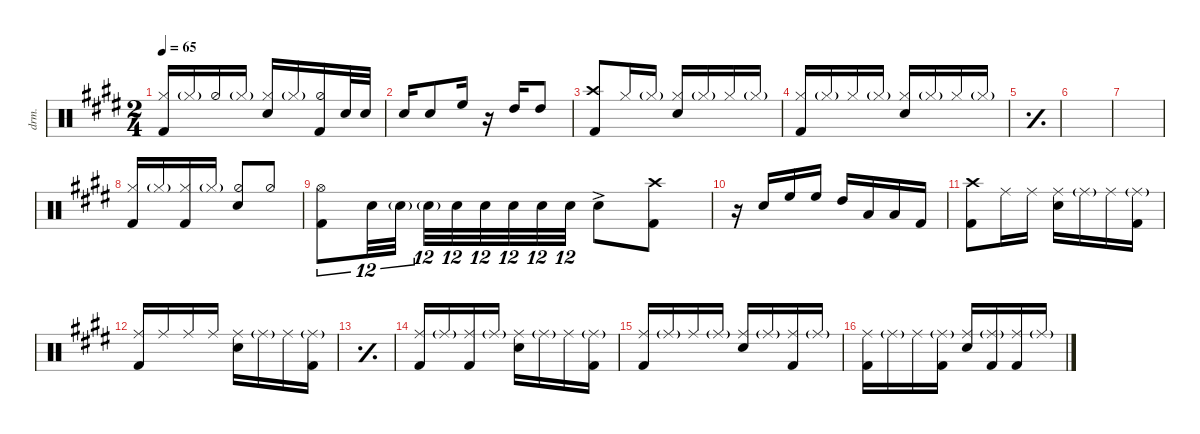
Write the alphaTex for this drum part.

\defaultSystemsLayout 4
\hideDynamics
\bracketExtendMode groupsimilarinstruments
\otherSystemsTrackNameOrientation horizontal
\chordDiagramsInScore
\track ("Drumkit" "drm.") {instrument percussion}
\staff {score}
\articulation defaults
\ts (2 4)
\tempo 65
\clef neutral
\ks e
("Hi-Hat (closed)"{acc forcenatural} "Kick (hit) 2"{acc forcenatural}).16{dy mf beam Up} "Hi-Hat (closed)"{g acc forcenatural}.16{beam Up} "Hi-Hat (half)"{acc forcenatural}.16{beam Up} "Hi-Hat (closed)"{g acc forcenatural}.16{beam Up} ("Hi-Hat (closed)"{acc forcenatural} "Snare (hit) 2"{acc forcenatural}).16{beam Up} "Hi-Hat (closed)"{g acc forcenatural}.16{beam Up} ("Hi-Hat (half)"{acc forcenatural} "Kick (hit) 2"{acc forcenatural}).16{beam Up} "Snare (hit) 2"{acc forcenatural}.32{beam Up} "Snare (hit) 2"{acc forcenatural}.32{beam Up} |
"Snare (hit) 2"{acc forcenatural}.16{beam Up} "Snare (hit) 2"{acc forcenatural}.8{beam Up} "High Floor Tom (hit)"{acc forcenatural}.16{beam Up} r.16{beam Up} "High Tom (hit)"{acc forcenatural}.16{beam Up} "High Tom (hit)"{acc forcenatural}.8{beam Up} |
("Crash high (hit)"{acc forcenatural} "Kick (hit) 2"{acc forcenatural}).8{beam Up} "Hi-Hat (closed)"{acc forcenatural}.16{beam Up} "Hi-Hat (closed)"{g acc forcenatural}.16{beam Up} ("Hi-Hat (closed)"{acc forcenatural} "Snare (hit) 2"{acc forcenatural}).16{beam Up} "Hi-Hat (closed)"{g acc forcenatural}.16{beam Up} "Hi-Hat (closed)"{acc forcenatural}.16{beam Up} "Hi-Hat (closed)"{g acc forcenatural}.16{beam Up} |
("Hi-Hat (closed)"{acc forcenatural} "Kick (hit) 2"{acc forcenatural}).16{beam Up} "Hi-Hat (closed)"{g acc forcenatural}.16{beam Up} "Hi-Hat (closed)"{acc forcenatural}.16{beam Up} "Hi-Hat (closed)"{g acc forcenatural}.16{beam Up} ("Hi-Hat (closed)"{acc forcenatural} "Snare (hit) 2"{acc forcenatural}).16{beam Up} "Hi-Hat (closed)"{g acc forcenatural}.16{beam Up} "Hi-Hat (closed)"{acc forcenatural}.16{beam Up} "Hi-Hat (closed)"{g acc forcenatural}.16{beam Up} |
\simile simple
|
|
|
\simile none
("Hi-Hat (closed)"{acc forcenatural} "Kick (hit) 2"{acc forcenatural}).16{beam Up} "Hi-Hat (closed)"{g acc forcenatural}.16{beam Up} ("Hi-Hat (closed)"{acc forcenatural} "Kick (hit) 2"{acc forcenatural}).16{beam Up} "Hi-Hat (closed)"{g acc forcenatural}.16{beam Up} ("Snare (hit) 2"{acc forcenatural} "Hi-Hat (half)"{acc forcenatural}).8{beam Up} "Hi-Hat (half)"{acc forcenatural}.8{beam Up} |
("Hi-Hat (open)"{acc forcenatural} "Kick (hit) 2"{acc forcenatural}).8{tu (12 8)} "Snare (hit) 2"{acc forcenatural}.32{tu (12 8)} "Snare (hit) 2"{g acc forcenatural}.32{tu (12 8)} "Snare (hit) 2"{g acc forcenatural}.32{tu (12 8)} "Snare (hit) 2"{acc forcenatural}.32{tu (12 8)} "Snare (hit) 2"{acc forcenatural}.32{tu (12 8)} "Snare (hit) 2"{acc forcenatural}.32{tu (12 8)} "Snare (hit) 2"{acc forcenatural}.32{tu (12 8)} "Snare (hit) 2"{acc forcenatural}.32{tu (12 8)} "Snare (hit) 2"{ac acc forcenatural}.8 ("Kick (hit) 2"{acc forcenatural} "Crash high (hit)"{acc forcenatural}).8 |
r.16 "Snare (hit) 2"{acc forcenatural}.16{beam Up} "High Floor Tom (hit)"{acc forcenatural}.16{beam Up} "High Floor Tom (hit)"{acc forcenatural}.16{beam Up} "High Tom (hit)"{acc forcenatural}.16 "Low Tom (hit)"{acc forcenatural}.16 "Low Tom (hit)"{acc forcenatural}.16 "Kick (hit) 2"{acc forcenatural}.16 |
("Crash high (hit)"{acc forcenatural} "Kick (hit) 2"{acc forcenatural}).8 "Ride (middle)"{acc forcenatural}.16 "Ride (middle)"{acc forcenatural}.16 ("Ride (middle)"{acc forcenatural} "Snare (hit) 2"{acc forcenatural}).16 "Ride (middle)"{g acc forcenatural}.16 "Ride (middle)"{acc forcenatural}.16 ("Ride (middle)"{g acc forcenatural} "Kick (hit) 2"{acc forcenatural}).16 |
("Kick (hit) 2"{acc forcenatural} "Ride (middle)"{acc forcenatural}).16{beam Up} "Ride (middle)"{acc forcenatural}.16{beam Up} "Ride (middle)"{acc forcenatural}.16{beam Up} "Ride (middle)"{acc forcenatural}.16{beam Up} ("Ride (middle)"{acc forcenatural} "Snare (hit) 2"{acc forcenatural}).16 "Ride (middle)"{g acc forcenatural}.16 "Ride (middle)"{acc forcenatural}.16 ("Ride (middle)"{g acc forcenatural} "Kick (hit) 2"{acc forcenatural}).16 |
\simile simple
|
\simile none
("Ride (middle)"{acc forcenatural} "Kick (hit) 2"{acc forcenatural}).16{beam Up} "Ride (middle)"{g acc forcenatural}.16{beam Up} ("Ride (middle)"{acc forcenatural} "Kick (hit) 2"{acc forcenatural}).16{beam Up} "Ride (middle)"{g acc forcenatural}.16{beam Up} ("Ride (middle)"{acc forcenatural} "Snare (hit) 2"{acc forcenatural}).16 "Ride (middle)"{g acc forcenatural}.16 "Ride (middle)"{acc forcenatural}.16 ("Ride (middle)"{g acc forcenatural} "Kick (hit) 2"{acc forcenatural}).16 |
("Ride (middle)"{acc forcenatural} "Kick (hit) 2"{acc forcenatural}).16{beam Up} "Ride (middle)"{g acc forcenatural}.16{beam Up} "Ride (middle)"{acc forcenatural}.16{beam Up} "Ride (middle)"{g acc forcenatural}.16{beam Up} ("Ride (middle)"{acc forcenatural} "Snare (hit) 2"{acc forcenatural}).16{beam Up} "Ride (middle)"{g acc forcenatural}.16{beam Up} ("Ride (middle)"{acc forcenatural} "Kick (hit) 2"{acc forcenatural}).16{beam Up} "Ride (middle)"{g acc forcenatural}.16{beam Up} |
("Kick (hit) 2"{acc forcenatural} "Ride (middle)"{acc forcenatural}).16 "Ride (middle)"{g acc forcenatural}.16 "Ride (middle)"{acc forcenatural}.16 ("Ride (middle)"{g acc forcenatural} "Kick (hit) 2"{acc forcenatural}).16 ("Ride (middle)"{acc forcenatural} "Snare (hit) 2"{acc forcenatural}).16{beam Up} ("Ride (middle)"{g acc forcenatural} "Kick (hit) 2"{acc forcenatural}).16{beam Up} ("Ride (middle)"{acc forcenatural} "Kick (hit) 2"{acc forcenatural}).16{beam Up} "Ride (middle)"{g acc forcenatural}.16{beam Up}
